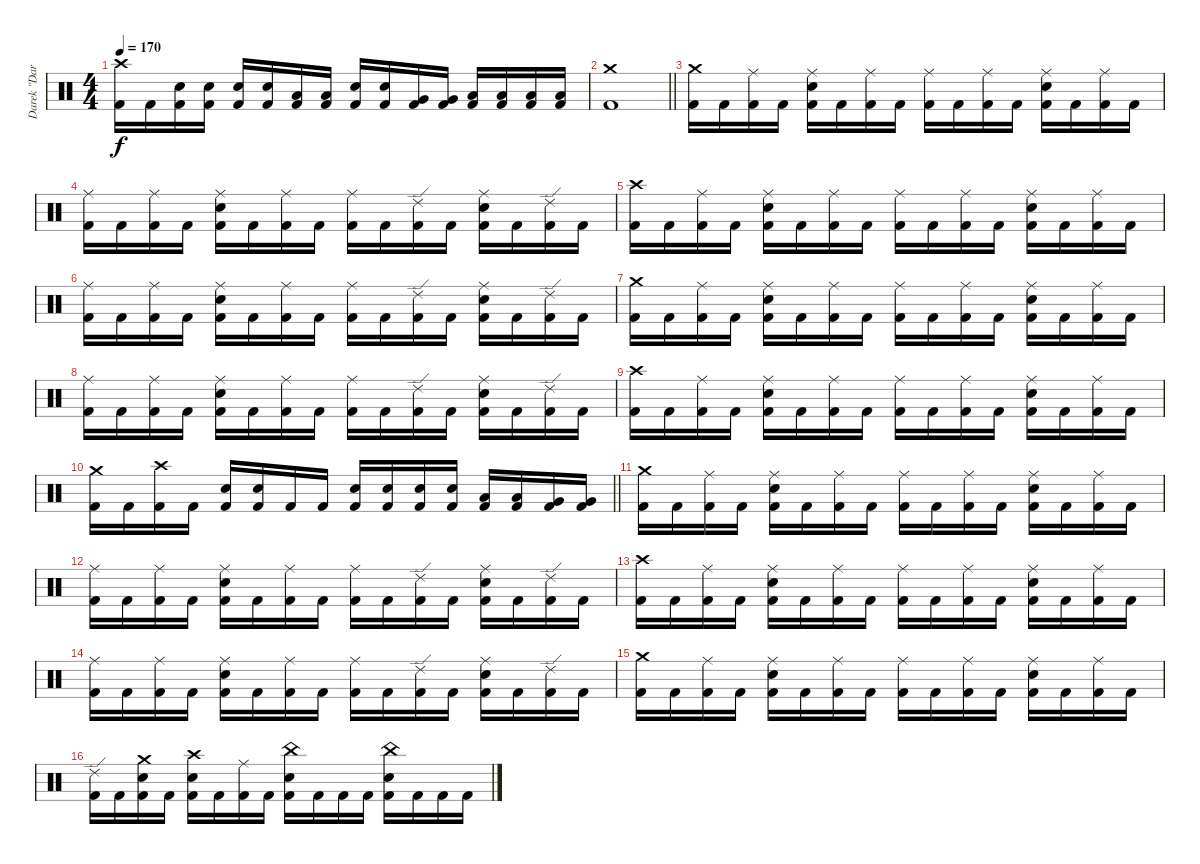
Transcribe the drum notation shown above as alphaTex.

\track ("Darek \"Daray\" Brzozowski " "Darek \"Dar") {instrument percussion}
\staff {score}
\articulation defaults
\ts (4 4)
\tempo 170
\clef neutral
\ks c
("Crash high (hit)" "Kick (hit) 2").16{dy f} "Kick (hit) 2".16 ("Electric Snare (hit)" "Kick (hit) 2").16 ("Electric Snare (hit)" "Kick (hit) 2").16 ("Electric Snare (hit)" "Kick (hit) 2").16 ("Electric Snare (hit)" "Kick (hit) 2").16 ("Low Tom (hit)" "Kick (hit) 2").16 ("Low Tom (hit)" "Kick (hit) 2").16 ("Electric Snare (hit)" "Kick (hit) 2").16 ("Electric Snare (hit)" "Kick (hit) 2").16 ("Very Low Tom (hit)" "Kick (hit) 2").16 ("Very Low Tom (hit)" "Kick (hit) 2").16 ("Low Floor Tom (hit)" "Kick (hit) 2").16 ("Low Floor Tom (hit)" "Kick (hit) 2").16 ("Low Floor Tom (hit)" "Kick (hit) 2").16 ("Low Floor Tom (hit)" "Kick (hit) 2").16 |
\barLineRight lightlight
("Crash medium (hit)" "Kick (hit) 2").1 |
("Crash medium (hit)" "Kick (hit) 2").16 "Kick (hit) 2".16 ("Ride (middle)" "Kick (hit) 2").16 "Kick (hit) 2".16 ("Ride (middle)" "Electric Snare (hit)" "Kick (hit) 2").16 "Kick (hit) 2".16 ("Ride (middle)" "Kick (hit) 2").16 "Kick (hit) 2".16 ("Ride (middle)" "Kick (hit) 2").16 "Kick (hit) 2".16 ("Ride (middle)" "Kick (hit) 2").16 "Kick (hit) 2".16 ("Ride (middle)" "Electric Snare (hit)" "Kick (hit) 2").16 "Kick (hit) 2".16 ("Ride (middle)" "Kick (hit) 2").16 "Kick (hit) 2".16 |
("Ride (middle)" "Kick (hit) 2").16 "Kick (hit) 2".16 ("Ride (middle)" "Kick (hit) 2").16 "Kick (hit) 2".16 ("Ride (middle)" "Electric Snare (hit)" "Kick (hit) 2").16 "Kick (hit) 2".16 ("Ride (middle)" "Kick (hit) 2").16 "Kick (hit) 2".16 ("Ride (middle)" "Kick (hit) 2").16 "Kick (hit) 2".16 ("Ride (edge) 2" "Kick (hit) 2").16 "Kick (hit) 2".16 ("Ride (middle)" "Electric Snare (hit)" "Kick (hit) 2").16 "Kick (hit) 2".16 ("Ride (edge) 2" "Kick (hit) 2").16 "Kick (hit) 2".16 |
("Crash high (hit)" "Kick (hit) 2").16 "Kick (hit) 2".16 ("Ride (middle)" "Kick (hit) 2").16 "Kick (hit) 2".16 ("Ride (middle)" "Electric Snare (hit)" "Kick (hit) 2").16 "Kick (hit) 2".16 ("Ride (middle)" "Kick (hit) 2").16 "Kick (hit) 2".16 ("Ride (middle)" "Kick (hit) 2").16 "Kick (hit) 2".16 ("Ride (middle)" "Kick (hit) 2").16 "Kick (hit) 2".16 ("Ride (middle)" "Electric Snare (hit)" "Kick (hit) 2").16 "Kick (hit) 2".16 ("Ride (middle)" "Kick (hit) 2").16 "Kick (hit) 2".16 |
("Ride (middle)" "Kick (hit) 2").16 "Kick (hit) 2".16 ("Ride (middle)" "Kick (hit) 2").16 "Kick (hit) 2".16 ("Ride (middle)" "Electric Snare (hit)" "Kick (hit) 2").16 "Kick (hit) 2".16 ("Ride (middle)" "Kick (hit) 2").16 "Kick (hit) 2".16 ("Ride (middle)" "Kick (hit) 2").16 "Kick (hit) 2".16 ("Ride (edge) 2" "Kick (hit) 2").16 "Kick (hit) 2".16 ("Ride (middle)" "Electric Snare (hit)" "Kick (hit) 2").16 "Kick (hit) 2".16 ("Ride (edge) 2" "Kick (hit) 2").16 "Kick (hit) 2".16 |
("Crash medium (hit)" "Kick (hit) 2").16 "Kick (hit) 2".16 ("Ride (middle)" "Kick (hit) 2").16 "Kick (hit) 2".16 ("Ride (middle)" "Electric Snare (hit)" "Kick (hit) 2").16 "Kick (hit) 2".16 ("Ride (middle)" "Kick (hit) 2").16 "Kick (hit) 2".16 ("Ride (middle)" "Kick (hit) 2").16 "Kick (hit) 2".16 ("Ride (middle)" "Kick (hit) 2").16 "Kick (hit) 2".16 ("Ride (middle)" "Electric Snare (hit)" "Kick (hit) 2").16 "Kick (hit) 2".16 ("Ride (middle)" "Kick (hit) 2").16 "Kick (hit) 2".16 |
("Ride (middle)" "Kick (hit) 2").16 "Kick (hit) 2".16 ("Ride (middle)" "Kick (hit) 2").16 "Kick (hit) 2".16 ("Ride (middle)" "Electric Snare (hit)" "Kick (hit) 2").16 "Kick (hit) 2".16 ("Ride (middle)" "Kick (hit) 2").16 "Kick (hit) 2".16 ("Ride (middle)" "Kick (hit) 2").16 "Kick (hit) 2".16 ("Ride (edge) 2" "Kick (hit) 2").16 "Kick (hit) 2".16 ("Ride (middle)" "Electric Snare (hit)" "Kick (hit) 2").16 "Kick (hit) 2".16 ("Ride (edge) 2" "Kick (hit) 2").16 "Kick (hit) 2".16 |
("Crash high (hit)" "Kick (hit) 2").16 "Kick (hit) 2".16 ("Ride (middle)" "Kick (hit) 2").16 "Kick (hit) 2".16 ("Ride (middle)" "Electric Snare (hit)" "Kick (hit) 2").16 "Kick (hit) 2".16 ("Ride (middle)" "Kick (hit) 2").16 "Kick (hit) 2".16 ("Ride (middle)" "Kick (hit) 2").16 "Kick (hit) 2".16 ("Ride (middle)" "Kick (hit) 2").16 "Kick (hit) 2".16 ("Ride (middle)" "Electric Snare (hit)" "Kick (hit) 2").16 "Kick (hit) 2".16 ("Ride (middle)" "Kick (hit) 2").16 "Kick (hit) 2".16 |
\barLineRight lightlight
("Crash medium (hit)" "Kick (hit) 2").16 "Kick (hit) 2".16 ("Crash high (hit)" "Kick (hit) 2").16 "Kick (hit) 2".16 ("Electric Snare (hit)" "Kick (hit) 2").16 ("Electric Snare (hit)" "Kick (hit) 2").16 "Kick (hit) 2".16 "Kick (hit) 2".16 ("Electric Snare (hit)" "Kick (hit) 2").16 ("Electric Snare (hit)" "Kick (hit) 2").16 ("Electric Snare (hit)" "Kick (hit) 2").16 ("Electric Snare (hit)" "Kick (hit) 2").16 ("Low Tom (hit)" "Kick (hit) 2").16 ("Low Tom (hit)" "Kick (hit) 2").16 ("Very Low Tom (hit)" "Kick (hit) 2").16 ("Very Low Tom (hit)" "Kick (hit) 2").16 |
("Crash medium (hit)" "Kick (hit) 2").16 "Kick (hit) 2".16 ("Ride (middle)" "Kick (hit) 2").16 "Kick (hit) 2".16 ("Ride (middle)" "Electric Snare (hit)" "Kick (hit) 2").16 "Kick (hit) 2".16 ("Ride (middle)" "Kick (hit) 2").16 "Kick (hit) 2".16 ("Ride (middle)" "Kick (hit) 2").16 "Kick (hit) 2".16 ("Ride (middle)" "Kick (hit) 2").16 "Kick (hit) 2".16 ("Ride (middle)" "Electric Snare (hit)" "Kick (hit) 2").16 "Kick (hit) 2".16 ("Ride (middle)" "Kick (hit) 2").16 "Kick (hit) 2".16 |
("Ride (middle)" "Kick (hit) 2").16 "Kick (hit) 2".16 ("Ride (middle)" "Kick (hit) 2").16 "Kick (hit) 2".16 ("Ride (middle)" "Electric Snare (hit)" "Kick (hit) 2").16 "Kick (hit) 2".16 ("Ride (middle)" "Kick (hit) 2").16 "Kick (hit) 2".16 ("Ride (middle)" "Kick (hit) 2").16 "Kick (hit) 2".16 ("Ride (edge) 2" "Kick (hit) 2").16 "Kick (hit) 2".16 ("Ride (middle)" "Electric Snare (hit)" "Kick (hit) 2").16 "Kick (hit) 2".16 ("Ride (edge) 2" "Kick (hit) 2").16 "Kick (hit) 2".16 |
("Crash high (hit)" "Kick (hit) 2").16 "Kick (hit) 2".16 ("Ride (middle)" "Kick (hit) 2").16 "Kick (hit) 2".16 ("Ride (middle)" "Electric Snare (hit)" "Kick (hit) 2").16 "Kick (hit) 2".16 ("Ride (middle)" "Kick (hit) 2").16 "Kick (hit) 2".16 ("Ride (middle)" "Kick (hit) 2").16 "Kick (hit) 2".16 ("Ride (middle)" "Kick (hit) 2").16 "Kick (hit) 2".16 ("Ride (middle)" "Electric Snare (hit)" "Kick (hit) 2").16 "Kick (hit) 2".16 ("Ride (middle)" "Kick (hit) 2").16 "Kick (hit) 2".16 |
("Ride (middle)" "Kick (hit) 2").16 "Kick (hit) 2".16 ("Ride (middle)" "Kick (hit) 2").16 "Kick (hit) 2".16 ("Ride (middle)" "Electric Snare (hit)" "Kick (hit) 2").16 "Kick (hit) 2".16 ("Ride (middle)" "Kick (hit) 2").16 "Kick (hit) 2".16 ("Ride (middle)" "Kick (hit) 2").16 "Kick (hit) 2".16 ("Ride (edge) 2" "Kick (hit) 2").16 "Kick (hit) 2".16 ("Ride (middle)" "Electric Snare (hit)" "Kick (hit) 2").16 "Kick (hit) 2".16 ("Ride (edge) 2" "Kick (hit) 2").16 "Kick (hit) 2".16 |
("Crash medium (hit)" "Kick (hit) 2").16 "Kick (hit) 2".16 ("Ride (middle)" "Kick (hit) 2").16 "Kick (hit) 2".16 ("Ride (middle)" "Electric Snare (hit)" "Kick (hit) 2").16 "Kick (hit) 2".16 ("Ride (middle)" "Kick (hit) 2").16 "Kick (hit) 2".16 ("Ride (middle)" "Kick (hit) 2").16 "Kick (hit) 2".16 ("Ride (middle)" "Kick (hit) 2").16 "Kick (hit) 2".16 ("Ride (middle)" "Electric Snare (hit)" "Kick (hit) 2").16 "Kick (hit) 2".16 ("Ride (middle)" "Kick (hit) 2").16 "Kick (hit) 2".16 |
("Ride (edge) 2" "Kick (hit) 2").16 "Kick (hit) 2".16 ("Crash medium (hit)" "Electric Snare (hit)" "Kick (hit) 2").16 "Kick (hit) 2".16 ("Crash high (hit)" "Electric Snare (hit)" "Kick (hit) 2").16 "Kick (hit) 2".16 ("Ride (middle)" "Kick (hit) 2").16 "Kick (hit) 2".16 ("China (hit)" "Electric Snare (hit)" "Kick (hit) 2").16 "Kick (hit) 2".16 "Kick (hit) 2".16 "Kick (hit) 2".16 ("China (hit)" "Electric Snare (hit)" "Kick (hit) 2").16 "Kick (hit) 2".16 "Kick (hit) 2".16 "Kick (hit) 2".16
